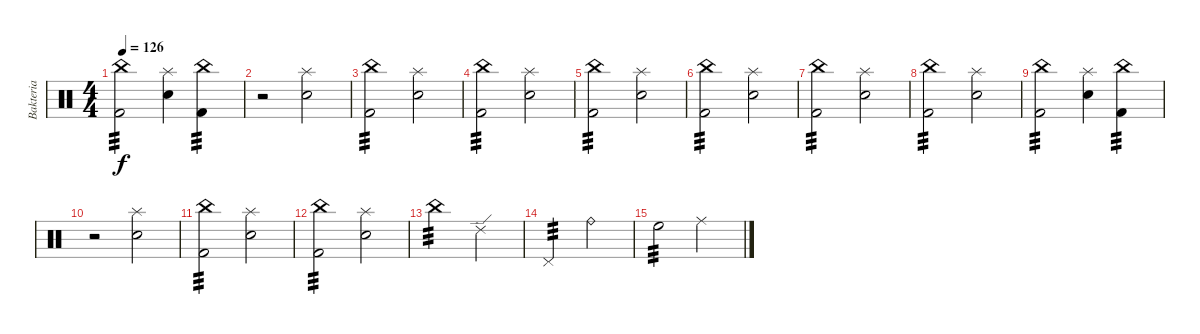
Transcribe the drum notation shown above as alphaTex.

\track ("Bakteria" "Bakteria") {instrument percussion}
\staff {score}
\articulation defaults
\ts (4 4)
\tempo 126
\clef neutral
\ks c
("Kick (hit) 2" "China (hit)").2{tp 3 dy f volume 0} ("Splash (hit)" "Snare (hit) 2").4{volume 13} ("Kick (hit) 2" "China (hit)").4{tp 3 volume 0} |
r.2{volume 0} ("Splash (hit)" "Snare (hit) 2").2{volume 13} |
("Kick (hit) 2" "China (hit)").2{tp 3 volume 0} ("Splash (hit)" "Snare (hit) 2").2{volume 13} |
("Kick (hit) 2" "China (hit)").2{tp 3 volume 0} ("Splash (hit)" "Snare (hit) 2").2{volume 13} |
("Kick (hit) 2" "China (hit)").2{tp 3 volume 0} ("Splash (hit)" "Snare (hit) 2").2{volume 13} |
("Kick (hit) 2" "China (hit)").2{tp 3 volume 0} ("Splash (hit)" "Snare (hit) 2").2{volume 13} |
("Kick (hit) 2" "China (hit)").2{tp 3 volume 0} ("Splash (hit)" "Snare (hit) 2").2{volume 13} |
("Kick (hit) 2" "China (hit)").2{tp 3 volume 0} ("Splash (hit)" "Snare (hit) 2").2{volume 13} |
("Kick (hit) 2" "China (hit)").2{tp 3 volume 0} ("Splash (hit)" "Snare (hit) 2").4{volume 13} ("Kick (hit) 2" "China (hit)").4{tp 3 volume 0} |
r.2{volume 0} ("Splash (hit)" "Snare (hit) 2").2{volume 13} |
("Kick (hit) 2" "China (hit)").2{tp 3 volume 0} ("Splash (hit)" "Snare (hit) 2").2{volume 13} |
("Kick (hit) 2" "China (hit)").2{tp 3 volume 0} ("Splash (hit)" "Snare (hit) 2").2{volume 13} |
"China (hit)".2{tp 3 volume 0} "Ride (edge) 2".2{volume 13} |
"Pedal Hi-Hat (hit)".2{tp 3 volume 0} "Ride (bell)".2{volume 13} |
"High Floor Tom (hit)".2{tp 3 volume 0} "Ride (middle)".2{volume 13}
